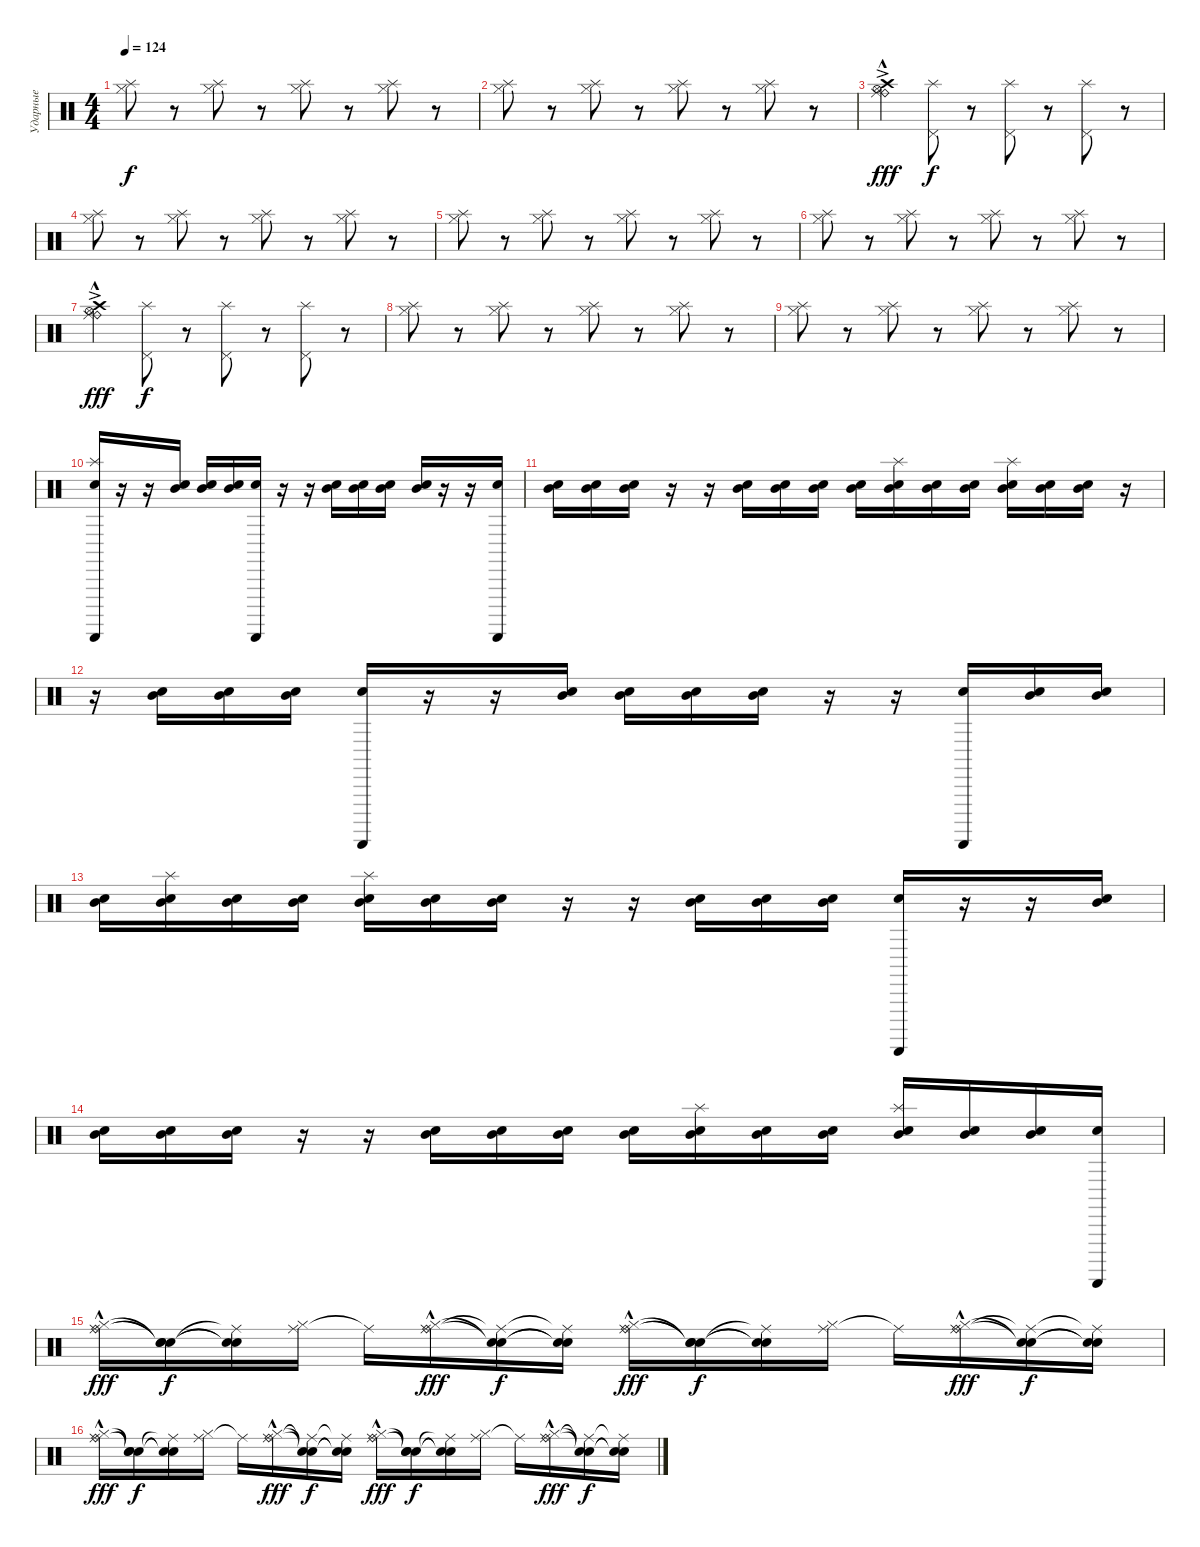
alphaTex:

\track ("Ударные" "Ударные") {instrument percussion}
\staff {score}
\articulation defaults
\ts (4 4)
\tempo 124
\clef neutral
\ks c
("Hi-Hat (closed)" "Splash (hit)").8{dy f} r.8 ("Hi-Hat (closed)" "Splash (hit)").8 r.8 ("Hi-Hat (closed)" "Splash (hit)").8 r.8 ("Hi-Hat (closed)" "Splash (hit)").8 r.8 |
("Hi-Hat (closed)" "Splash (hit)").8 r.8 ("Hi-Hat (closed)" "Splash (hit)").8 r.8 ("Hi-Hat (closed)" "Splash (hit)").8 r.8 ("Hi-Hat (closed)" "Splash (hit)").8 r.8 |
("Ride (bell)"{ac} "Ride (middle)"{hac} "Crash high (hit)" "Hi-Hat (open)").4{dy fff} ("Pedal Hi-Hat (hit)" "Splash (hit)").8{dy f} r.8 ("Pedal Hi-Hat (hit)" "Splash (hit)").8 r.8 ("Pedal Hi-Hat (hit)" "Splash (hit)").8 r.8 |
("Hi-Hat (closed)" "Splash (hit)").8 r.8 ("Hi-Hat (closed)" "Splash (hit)").8 r.8 ("Hi-Hat (closed)" "Splash (hit)").8 r.8 ("Hi-Hat (closed)" "Splash (hit)").8 r.8 |
("Hi-Hat (closed)" "Splash (hit)").8 r.8 ("Hi-Hat (closed)" "Splash (hit)").8 r.8 ("Hi-Hat (closed)" "Splash (hit)").8 r.8 ("Hi-Hat (closed)" "Splash (hit)").8 r.8 |
("Hi-Hat (closed)" "Splash (hit)").8 r.8 ("Hi-Hat (closed)" "Splash (hit)").8 r.8 ("Hi-Hat (closed)" "Splash (hit)").8 r.8 ("Hi-Hat (closed)" "Splash (hit)").8 r.8 |
("Ride (bell)"{ac} "Ride (middle)"{hac} "Crash high (hit)" "Hi-Hat (open)").4{dy fff} ("Pedal Hi-Hat (hit)" "Splash (hit)").8{dy f} r.8 ("Pedal Hi-Hat (hit)" "Splash (hit)").8 r.8 ("Pedal Hi-Hat (hit)" "Splash (hit)").8 r.8 |
("Hi-Hat (closed)" "Splash (hit)").8 r.8 ("Hi-Hat (closed)" "Splash (hit)").8 r.8 ("Hi-Hat (closed)" "Splash (hit)").8 r.8 ("Hi-Hat (closed)" "Splash (hit)").8 r.8 |
("Hi-Hat (closed)" "Splash (hit)").8 r.8 ("Hi-Hat (closed)" "Splash (hit)").8 r.8 ("Hi-Hat (closed)" "Splash (hit)").8 r.8 ("Hi-Hat (closed)" "Splash (hit)").8 r.8 |
("Electric Snare (hit)" "Guiro (scrap-return)" "Splash (hit)").16 r.16 r.16 ("Electric Snare (hit)" "Mid Tom (hit)").16 ("Electric Snare (hit)" "Mid Tom (hit)").16 ("Electric Snare (hit)" "Mid Tom (hit)").16 ("Electric Snare (hit)" "Guiro (scrap-return)").16 r.16 r.16 ("Electric Snare (hit)" "Mid Tom (hit)").16 ("Electric Snare (hit)" "Mid Tom (hit)").16 ("Electric Snare (hit)" "Mid Tom (hit)").16 ("Electric Snare (hit)" "Mid Tom (hit)").16 r.16 r.16 ("Electric Snare (hit)" "Guiro (scrap-return)").16 |
("Electric Snare (hit)" "Mid Tom (hit)").16 ("Electric Snare (hit)" "Mid Tom (hit)").16 ("Electric Snare (hit)" "Mid Tom (hit)").16 r.16 r.16 ("Electric Snare (hit)" "Mid Tom (hit)").16 ("Electric Snare (hit)" "Mid Tom (hit)").16 ("Electric Snare (hit)" "Mid Tom (hit)").16 ("Electric Snare (hit)" "Mid Tom (hit)").16 ("Electric Snare (hit)" "Mid Tom (hit)" "Splash (hit)").16 ("Electric Snare (hit)" "Mid Tom (hit)").16 ("Electric Snare (hit)" "Mid Tom (hit)").16 ("Electric Snare (hit)" "Mid Tom (hit)" "Splash (hit)").16 ("Electric Snare (hit)" "Mid Tom (hit)").16 ("Electric Snare (hit)" "Mid Tom (hit)").16 r.16 |
r.16 ("Electric Snare (hit)" "Mid Tom (hit)").16 ("Electric Snare (hit)" "Mid Tom (hit)").16 ("Electric Snare (hit)" "Mid Tom (hit)").16 ("Electric Snare (hit)" "Guiro (scrap-return)").16 r.16 r.16 ("Electric Snare (hit)" "Mid Tom (hit)").16 ("Electric Snare (hit)" "Mid Tom (hit)").16 ("Electric Snare (hit)" "Mid Tom (hit)").16 ("Electric Snare (hit)" "Mid Tom (hit)").16 r.16 r.16 ("Electric Snare (hit)" "Guiro (scrap-return)").16 ("Electric Snare (hit)" "Mid Tom (hit)").16 ("Electric Snare (hit)" "Mid Tom (hit)").16 |
("Electric Snare (hit)" "Mid Tom (hit)").16 ("Electric Snare (hit)" "Mid Tom (hit)" "Splash (hit)").16 ("Electric Snare (hit)" "Mid Tom (hit)").16 ("Electric Snare (hit)" "Mid Tom (hit)").16 ("Electric Snare (hit)" "Mid Tom (hit)" "Splash (hit)").16 ("Electric Snare (hit)" "Mid Tom (hit)").16 ("Electric Snare (hit)" "Mid Tom (hit)").16 r.16 r.16 ("Electric Snare (hit)" "Mid Tom (hit)").16 ("Electric Snare (hit)" "Mid Tom (hit)").16 ("Electric Snare (hit)" "Mid Tom (hit)").16 ("Electric Snare (hit)" "Guiro (scrap-return)").16 r.16 r.16 ("Electric Snare (hit)" "Mid Tom (hit)").16 |
("Electric Snare (hit)" "Mid Tom (hit)").16 ("Electric Snare (hit)" "Mid Tom (hit)").16 ("Electric Snare (hit)" "Mid Tom (hit)").16 r.16 r.16 ("Electric Snare (hit)" "Mid Tom (hit)").16 ("Electric Snare (hit)" "Mid Tom (hit)").16 ("Electric Snare (hit)" "Mid Tom (hit)").16 ("Electric Snare (hit)" "Mid Tom (hit)").16 ("Electric Snare (hit)" "Mid Tom (hit)" "Splash (hit)").16 ("Electric Snare (hit)" "Mid Tom (hit)").16 ("Electric Snare (hit)" "Mid Tom (hit)").16 ("Electric Snare (hit)" "Mid Tom (hit)" "Splash (hit)").16 ("Electric Snare (hit)" "Mid Tom (hit)").16 ("Electric Snare (hit)" "Mid Tom (hit)").16 ("Electric Snare (hit)" "Guiro (scrap-return)").16 |
("Ride (middle)"{hac} "Hi-Hat (closed)" "Ride (bell)").16{dy fff} ("Snare (hit)"{t} "Snare (hit)"{t} "Snare (hit)"{t}).16{dy f} ("Ride (middle)"{t} "Snare (hit)"{t} "Snare (hit)"{t}).16 ("Ride (middle)" "Hi-Hat (closed)").16 "Ride (middle)"{t}.16 ("Ride (middle)" "Hi-Hat (closed)" "Ride (bell)"{hac}).16{dy fff} ("Ride (middle)"{t} "Snare (hit)"{t} "Snare (hit)"{t}).16{dy f} ("Ride (middle)"{t} "Snare (hit)"{t} "Snare (hit)"{t}).16 ("Ride (middle)"{hac} "Hi-Hat (closed)" "Ride (bell)").16{dy fff} ("Snare (hit)"{t} "Snare (hit)"{t} "Snare (hit)"{t}).16{dy f} ("Ride (middle)"{t} "Snare (hit)"{t} "Snare (hit)"{t}).16 ("Ride (middle)" "Hi-Hat (closed)").16 "Ride (middle)"{t}.16 ("Ride (middle)" "Hi-Hat (closed)" "Ride (bell)"{hac}).16{dy fff} ("Ride (middle)"{t} "Snare (hit)"{t} "Snare (hit)"{t}).16{dy f} ("Ride (middle)"{t} "Snare (hit)"{t} "Snare (hit)"{t}).16 |
("Ride (middle)"{hac} "Hi-Hat (closed)" "Ride (bell)").16{dy fff} ("Snare (hit)"{t} "Snare (hit)"{t} "Snare (hit)"{t}).16{dy f} ("Ride (middle)"{t} "Snare (hit)"{t} "Snare (hit)"{t}).16 ("Ride (middle)" "Hi-Hat (closed)").16 "Ride (middle)"{t}.16 ("Ride (middle)" "Hi-Hat (closed)" "Ride (bell)"{hac}).16{dy fff} ("Ride (middle)"{t} "Snare (hit)"{t} "Snare (hit)"{t}).16{dy f} ("Ride (middle)"{t} "Snare (hit)"{t} "Snare (hit)"{t}).16 ("Ride (middle)"{hac} "Hi-Hat (closed)" "Ride (bell)").16{dy fff} ("Snare (hit)"{t} "Snare (hit)"{t} "Snare (hit)"{t}).16{dy f} ("Ride (middle)"{t} "Snare (hit)"{t} "Snare (hit)"{t}).16 ("Ride (middle)" "Hi-Hat (closed)").16 "Ride (middle)"{t}.16 ("Ride (middle)" "Hi-Hat (closed)" "Ride (bell)"{hac}).16{dy fff} ("Ride (middle)"{t} "Snare (hit)"{t} "Snare (hit)"{t}).16{dy f} ("Ride (middle)"{t} "Snare (hit)"{t} "Snare (hit)"{t}).16
